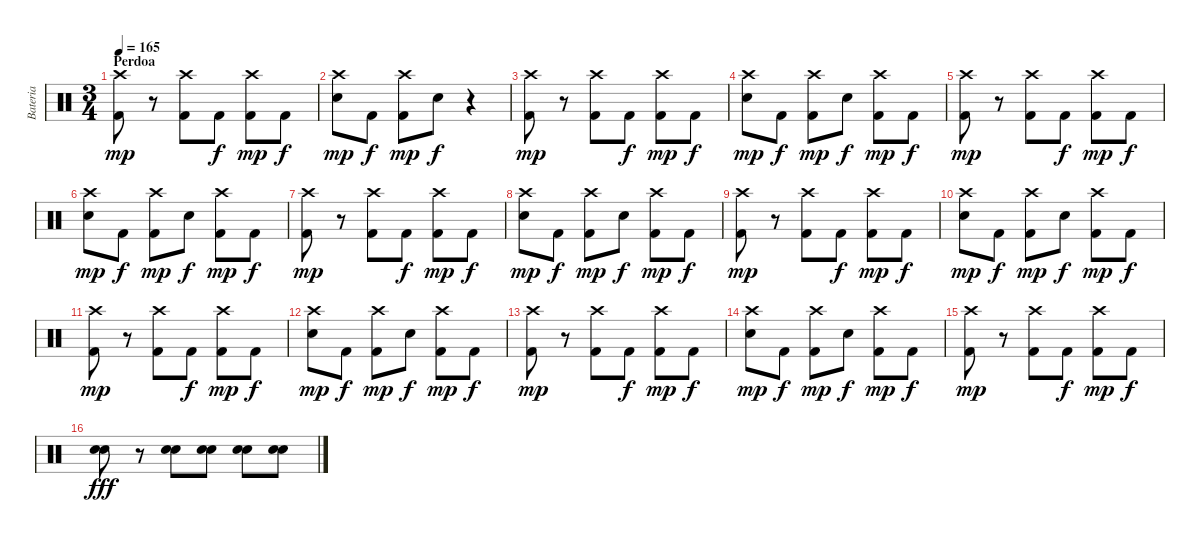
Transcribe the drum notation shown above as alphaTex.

\track ("Bateria" "Bateria") {instrument percussion}
\staff {score}
\articulation defaults
\ts (3 4)
\section ("" "Perdoa")
\tempo 165
\clef neutral
\ks c
("Crash high (hit)" "Kick (hit) 2").8{dy mp} r.8 ("Crash high (hit)" "Kick (hit) 2").8 "Kick (hit) 2".8{dy f} ("Crash high (hit)" "Kick (hit) 2").8{dy mp} "Kick (hit) 2".8{dy f} |
("Crash high (hit)" "Electric Snare (hit)").8{dy mp} "Kick (hit) 2".8{dy f} ("Crash high (hit)" "Kick (hit) 2").8{dy mp} "Electric Snare (hit)".8{dy f} r.4 |
("Crash high (hit)" "Kick (hit) 2").8{dy mp} r.8 ("Crash high (hit)" "Kick (hit) 2").8 "Kick (hit) 2".8{dy f} ("Crash high (hit)" "Kick (hit) 2").8{dy mp} "Kick (hit) 2".8{dy f} |
("Crash high (hit)" "Electric Snare (hit)").8{dy mp} "Kick (hit) 2".8{dy f} ("Crash high (hit)" "Kick (hit) 2").8{dy mp} "Electric Snare (hit)".8{dy f} ("Crash high (hit)" "Kick (hit) 2").8{dy mp} "Kick (hit) 2".8{dy f} |
("Crash high (hit)" "Kick (hit) 2").8{dy mp} r.8 ("Crash high (hit)" "Kick (hit) 2").8 "Kick (hit) 2".8{dy f} ("Crash high (hit)" "Kick (hit) 2").8{dy mp} "Kick (hit) 2".8{dy f} |
("Crash high (hit)" "Electric Snare (hit)").8{dy mp} "Kick (hit) 2".8{dy f} ("Crash high (hit)" "Kick (hit) 2").8{dy mp} "Electric Snare (hit)".8{dy f} ("Crash high (hit)" "Kick (hit) 2").8{dy mp} "Kick (hit) 2".8{dy f} |
("Crash high (hit)" "Kick (hit) 2").8{dy mp} r.8 ("Crash high (hit)" "Kick (hit) 2").8 "Kick (hit) 2".8{dy f} ("Crash high (hit)" "Kick (hit) 2").8{dy mp} "Kick (hit) 2".8{dy f} |
("Crash high (hit)" "Electric Snare (hit)").8{dy mp} "Kick (hit) 2".8{dy f} ("Crash high (hit)" "Kick (hit) 2").8{dy mp} "Electric Snare (hit)".8{dy f} ("Crash high (hit)" "Kick (hit) 2").8{dy mp} "Kick (hit) 2".8{dy f} |
("Crash high (hit)" "Kick (hit) 2").8{dy mp} r.8 ("Crash high (hit)" "Kick (hit) 2").8 "Kick (hit) 2".8{dy f} ("Crash high (hit)" "Kick (hit) 2").8{dy mp} "Kick (hit) 2".8{dy f} |
("Crash high (hit)" "Electric Snare (hit)").8{dy mp} "Kick (hit) 2".8{dy f} ("Crash high (hit)" "Kick (hit) 2").8{dy mp} "Electric Snare (hit)".8{dy f} ("Crash high (hit)" "Kick (hit) 2").8{dy mp} "Kick (hit) 2".8{dy f} |
("Crash high (hit)" "Kick (hit) 2").8{dy mp} r.8 ("Crash high (hit)" "Kick (hit) 2").8 "Kick (hit) 2".8{dy f} ("Crash high (hit)" "Kick (hit) 2").8{dy mp} "Kick (hit) 2".8{dy f} |
("Crash high (hit)" "Electric Snare (hit)").8{dy mp} "Kick (hit) 2".8{dy f} ("Crash high (hit)" "Kick (hit) 2").8{dy mp} "Electric Snare (hit)".8{dy f} ("Crash high (hit)" "Kick (hit) 2").8{dy mp} "Kick (hit) 2".8{dy f} |
("Crash high (hit)" "Kick (hit) 2").8{dy mp} r.8 ("Crash high (hit)" "Kick (hit) 2").8 "Kick (hit) 2".8{dy f} ("Crash high (hit)" "Kick (hit) 2").8{dy mp} "Kick (hit) 2".8{dy f} |
("Crash high (hit)" "Electric Snare (hit)").8{dy mp} "Kick (hit) 2".8{dy f} ("Crash high (hit)" "Kick (hit) 2").8{dy mp} "Electric Snare (hit)".8{dy f} ("Crash high (hit)" "Kick (hit) 2").8{dy mp} "Kick (hit) 2".8{dy f} |
("Crash high (hit)" "Kick (hit) 2").8{dy mp} r.8 ("Crash high (hit)" "Kick (hit) 2").8 "Kick (hit) 2".8{dy f} ("Crash high (hit)" "Kick (hit) 2").8{dy mp} "Kick (hit) 2".8{dy f} |
("Electric Snare (hit)" "Electric Snare (hit)").8{dy fff} r.8 ("Electric Snare (hit)" "Electric Snare (hit)").8 ("Electric Snare (hit)" "Electric Snare (hit)").8 ("Electric Snare (hit)" "Electric Snare (hit)").8 ("Electric Snare (hit)" "Electric Snare (hit)").8
